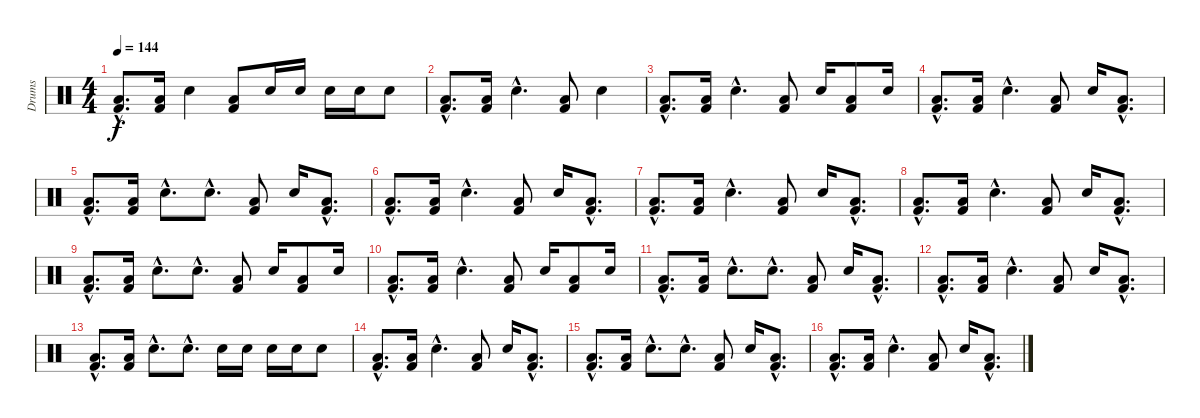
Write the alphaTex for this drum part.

\track ("Drums" "Drums") {instrument percussion}
\staff {score}
\articulation defaults
\ts (4 4)
\tempo 144
\clef neutral
\ks c
("Low Floor Tom (hit)"{hac} "Kick (hit) 2"{hac}).8{d dy f} ("Low Floor Tom (hit)" "Kick (hit) 2").16 "Snare (hit) 2".4 ("Low Floor Tom (hit)" "Kick (hit) 2").8 "Snare (hit) 2".16 "Snare (hit) 2".16 "Snare (hit) 2".16 "Snare (hit) 2".16 "Snare (hit) 2".8 |
("Low Floor Tom (hit)"{hac} "Kick (hit) 2"{hac}).8{d} ("Low Floor Tom (hit)" "Kick (hit) 2").16 "Snare (hit) 2"{hac}.4{d} ("Low Floor Tom (hit)" "Kick (hit) 2").8 "Snare (hit) 2".4 |
("Low Floor Tom (hit)"{hac} "Kick (hit) 2"{hac}).8{d} ("Low Floor Tom (hit)" "Kick (hit) 2").16 "Snare (hit) 2"{hac}.4{d} ("Low Floor Tom (hit)" "Kick (hit) 2").8 "Snare (hit) 2".16 ("Low Floor Tom (hit)" "Kick (hit) 2").8 "Snare (hit) 2".16 |
("Low Floor Tom (hit)"{hac} "Kick (hit) 2"{hac}).8{d} ("Low Floor Tom (hit)" "Kick (hit) 2").16 "Snare (hit) 2"{hac}.4{d} ("Low Floor Tom (hit)" "Kick (hit) 2").8 "Snare (hit) 2".16 ("Low Floor Tom (hit)"{hac} "Kick (hit) 2"{hac}).8{d} |
("Low Floor Tom (hit)"{hac} "Kick (hit) 2"{hac}).8{d} ("Low Floor Tom (hit)" "Kick (hit) 2").16 "Snare (hit) 2"{hac}.8{d} "Snare (hit) 2"{hac}.8{d} ("Low Floor Tom (hit)" "Kick (hit) 2").8 "Snare (hit) 2".16 ("Low Floor Tom (hit)"{hac} "Kick (hit) 2"{hac}).8{d} |
("Low Floor Tom (hit)"{hac} "Kick (hit) 2"{hac}).8{d} ("Low Floor Tom (hit)" "Kick (hit) 2").16 "Snare (hit) 2"{hac}.4{d} ("Low Floor Tom (hit)" "Kick (hit) 2").8 "Snare (hit) 2".16 ("Low Floor Tom (hit)"{hac} "Kick (hit) 2"{hac}).8{d} |
("Low Floor Tom (hit)"{hac} "Kick (hit) 2"{hac}).8{d} ("Low Floor Tom (hit)" "Kick (hit) 2").16 "Snare (hit) 2"{hac}.4{d} ("Low Floor Tom (hit)" "Kick (hit) 2").8 "Snare (hit) 2".16 ("Low Floor Tom (hit)"{hac} "Kick (hit) 2"{hac}).8{d} |
("Low Floor Tom (hit)"{hac} "Kick (hit) 2"{hac}).8{d} ("Low Floor Tom (hit)" "Kick (hit) 2").16 "Snare (hit) 2"{hac}.4{d} ("Low Floor Tom (hit)" "Kick (hit) 2").8 "Snare (hit) 2".16 ("Low Floor Tom (hit)"{hac} "Kick (hit) 2"{hac}).8{d} |
("Low Floor Tom (hit)"{hac} "Kick (hit) 2"{hac}).8{d} ("Low Floor Tom (hit)" "Kick (hit) 2").16 "Snare (hit) 2"{hac}.8{d} "Snare (hit) 2"{hac}.8{d} ("Low Floor Tom (hit)" "Kick (hit) 2").8 "Snare (hit) 2".16 ("Low Floor Tom (hit)" "Kick (hit) 2").8 "Snare (hit) 2".16 |
("Low Floor Tom (hit)"{hac} "Kick (hit) 2"{hac}).8{d} ("Low Floor Tom (hit)" "Kick (hit) 2").16 "Snare (hit) 2"{hac}.4{d} ("Low Floor Tom (hit)" "Kick (hit) 2").8 "Snare (hit) 2".16 ("Low Floor Tom (hit)" "Kick (hit) 2").8 "Snare (hit) 2".16 |
("Low Floor Tom (hit)"{hac} "Kick (hit) 2"{hac}).8{d} ("Low Floor Tom (hit)" "Kick (hit) 2").16 "Snare (hit) 2"{hac}.8{d} "Snare (hit) 2"{hac}.8{d} ("Low Floor Tom (hit)" "Kick (hit) 2").8 "Snare (hit) 2".16 ("Low Floor Tom (hit)"{hac} "Kick (hit) 2"{hac}).8{d} |
("Low Floor Tom (hit)"{hac} "Kick (hit) 2"{hac}).8{d} ("Low Floor Tom (hit)" "Kick (hit) 2").16 "Snare (hit) 2"{hac}.4{d} ("Low Floor Tom (hit)" "Kick (hit) 2").8 "Snare (hit) 2".16 ("Low Floor Tom (hit)"{hac} "Kick (hit) 2"{hac}).8{d} |
("Low Floor Tom (hit)"{hac} "Kick (hit) 2"{hac}).8{d} ("Low Floor Tom (hit)" "Kick (hit) 2").16 "Snare (hit) 2"{hac}.8{d} "Snare (hit) 2"{hac}.8{d} "Snare (hit) 2".16 "Snare (hit) 2".16 "Snare (hit) 2".16 "Snare (hit) 2".16 "Snare (hit) 2".8 |
("Low Floor Tom (hit)"{hac} "Kick (hit) 2"{hac}).8{d} ("Low Floor Tom (hit)" "Kick (hit) 2").16 "Snare (hit) 2"{hac}.4{d} ("Low Floor Tom (hit)" "Kick (hit) 2").8 "Snare (hit) 2".16 ("Low Floor Tom (hit)"{hac} "Kick (hit) 2"{hac}).8{d} |
("Low Floor Tom (hit)"{hac} "Kick (hit) 2"{hac}).8{d} ("Low Floor Tom (hit)" "Kick (hit) 2").16 "Snare (hit) 2"{hac}.8{d} "Snare (hit) 2"{hac}.8{d} ("Low Floor Tom (hit)" "Kick (hit) 2").8 "Snare (hit) 2".16 ("Low Floor Tom (hit)"{hac} "Kick (hit) 2"{hac}).8{d} |
("Low Floor Tom (hit)"{hac} "Kick (hit) 2"{hac}).8{d} ("Low Floor Tom (hit)" "Kick (hit) 2").16 "Snare (hit) 2"{hac}.4{d} ("Low Floor Tom (hit)" "Kick (hit) 2").8 "Snare (hit) 2".16 ("Low Floor Tom (hit)"{hac} "Kick (hit) 2"{hac}).8{d}
